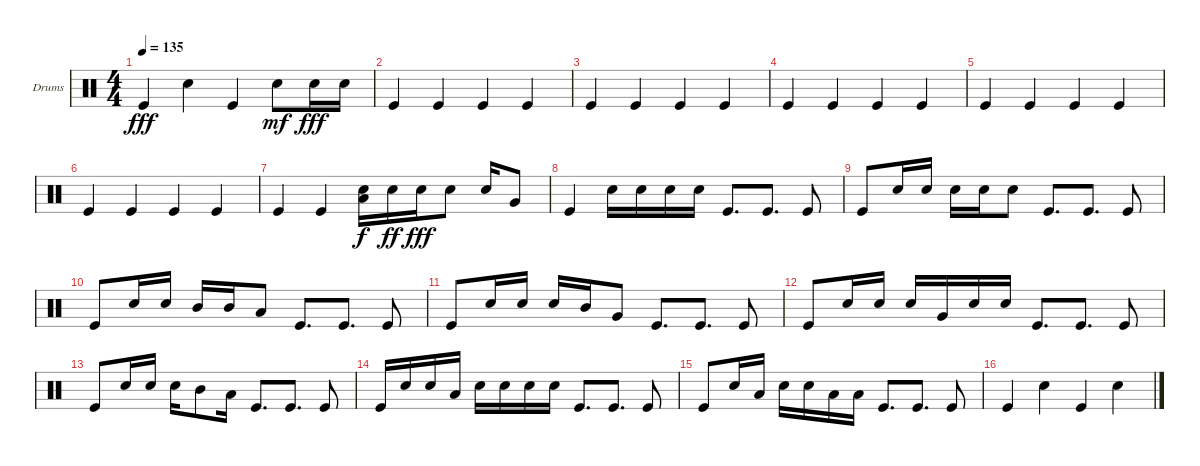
\defaultSystemsLayout 4
\bracketExtendMode groupsimilarinstruments
\firstSystemTrackNameOrientation horizontal
\otherSystemsTrackNameOrientation horizontal
\track ("Helders" "Drums") {instrument percussion}
\staff {score}
\articulation defaults
\ts (4 4)
\tempo 135
\clef neutral
\ks c "Kick (hit)".4{dy fff} "Snare (hit) 2".4 "Kick (hit)".4 "Snare (hit) 2".8{dy mf} "Snare (hit) 2".16{dy fff} "Snare (hit) 2".16
|
"Kick (hit)".4 "Kick (hit)".4 "Kick (hit)".4 "Kick (hit)".4 |
"Kick (hit)".4 "Kick (hit)".4 "Kick (hit)".4 "Kick (hit)".4 |
"Kick (hit)".4 "Kick (hit)".4 "Kick (hit)".4 "Kick (hit)".4 |
"Kick (hit)".4 "Kick (hit)".4 "Kick (hit)".4 "Kick (hit)".4 |
"Kick (hit)".4 "Kick (hit)".4 "Kick (hit)".4 "Kick (hit)".4 |
"Kick (hit)".4 "Kick (hit)".4 ("Low Tom (hit)" "Snare (hit) 2").16{dy f} "Snare (hit) 2".16{dy ff} "Snare (hit) 2".16{dy fff} "Snare (hit) 2".8 "Snare (hit) 2".16 "Very Low Tom (hit)".8 |
"Kick (hit)".4 "Snare (hit) 2".16 "Snare (hit) 2".16 "Snare (hit) 2".16 "Snare (hit) 2".16 "Kick (hit)".8{d} "Kick (hit)".8{d} "Kick (hit)".8 |
"Kick (hit)".8 "Snare (hit) 2".16 "Snare (hit) 2".16 "Snare (hit) 2".16 "Snare (hit) 2".16 "Snare (hit) 2".8 "Kick (hit)".8{d} "Kick (hit)".8{d} "Kick (hit)".8 |
"Kick (hit)".8 "Snare (hit) 2".16 "Snare (hit) 2".16 "Mid Tom (hit)".16 "Mid Tom (hit)".16 "Low Tom (hit)".8 "Kick (hit)".8{d} "Kick (hit)".8{d} "Kick (hit)".8 |
"Kick (hit)".8 "Snare (hit) 2".16 "Snare (hit) 2".16 "Snare (hit) 2".16 "Mid Tom (hit)".16 "Very Low Tom (hit)".8 "Kick (hit)".8{d} "Kick (hit)".8{d} "Kick (hit)".8 |
"Kick (hit)".8 "Snare (hit) 2".16 "Snare (hit) 2".16 "Snare (hit) 2".16 "Very Low Tom (hit)".16 "Snare (hit) 2".16 "Snare (hit) 2".16 "Kick (hit)".8{d} "Kick (hit)".8{d} "Kick (hit)".8 |
"Kick (hit)".8 "Snare (hit) 2".16 "Snare (hit) 2".16 "Snare (hit) 2".16 "Mid Tom (hit)".8 "Low Tom (hit)".16 "Kick (hit)".8{d} "Kick (hit)".8{d} "Kick (hit)".8 |
"Kick (hit)".16 "Snare (hit) 2".16 "Snare (hit) 2".16 "Low Tom (hit)".16 "Snare (hit) 2".16 "Snare (hit) 2".16 "Snare (hit) 2".16 "Snare (hit) 2".16 "Kick (hit)".8{d} "Kick (hit)".8{d} "Kick (hit)".8 |
"Kick (hit)".8 "Snare (hit) 2".16 "Low Tom (hit)".16 "Snare (hit) 2".16 "Snare (hit) 2".16 "Low Tom (hit)".16 "Low Tom (hit)".16 "Kick (hit)".8{d} "Kick (hit)".8{d} "Kick (hit)".8 |
"Kick (hit)".4 "Snare (hit) 2".4 "Kick (hit)".4 "Snare (hit) 2".4
